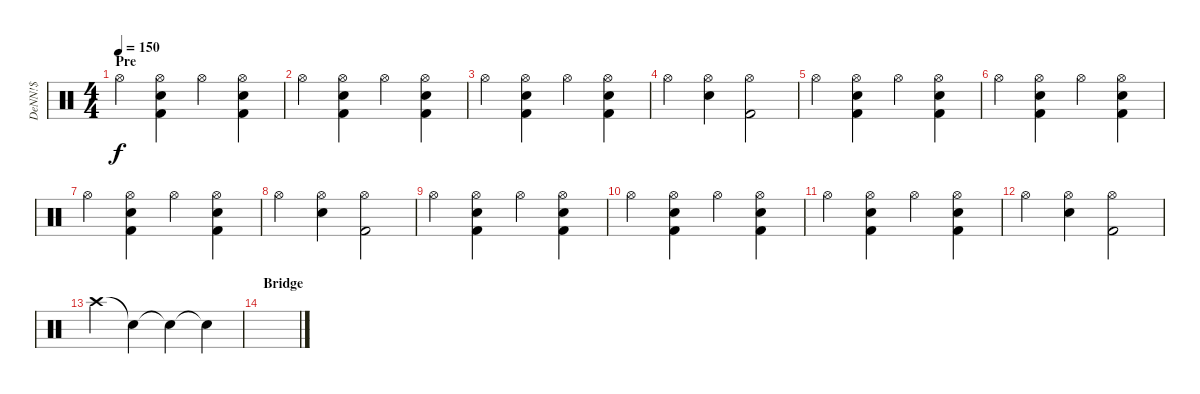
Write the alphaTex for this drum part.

\track ("DeNN!$" "DeNN!$") {instrument percussion}
\staff {score}
\articulation defaults
\ts (4 4)
\section ("" "Pre")
\tempo 150
\clef neutral
\ks c "Hi-Hat (open)".4{dy f}
("Hi-Hat (open)" "Snare (hit) 2" "Kick (hit) 2").4 "Hi-Hat (open)".4 ("Hi-Hat (open)" "Snare (hit) 2" "Kick (hit) 2").4 |
"Hi-Hat (open)".4 ("Hi-Hat (open)" "Snare (hit) 2" "Kick (hit) 2").4 "Hi-Hat (open)".4 ("Hi-Hat (open)" "Snare (hit) 2" "Kick (hit) 2").4 |
"Hi-Hat (open)".4 ("Hi-Hat (open)" "Snare (hit) 2" "Kick (hit) 2").4 "Hi-Hat (open)".4 ("Hi-Hat (open)" "Snare (hit) 2" "Kick (hit) 2").4 |
"Hi-Hat (open)".4 ("Hi-Hat (open)" "Snare (hit) 2").4 ("Hi-Hat (open)" "Kick (hit) 2").2 |
"Hi-Hat (open)".4 ("Hi-Hat (open)" "Snare (hit) 2" "Kick (hit) 2").4 "Hi-Hat (open)".4 ("Hi-Hat (open)" "Snare (hit) 2" "Kick (hit) 2").4 |
"Hi-Hat (open)".4 ("Hi-Hat (open)" "Snare (hit) 2" "Kick (hit) 2").4 "Hi-Hat (open)".4 ("Hi-Hat (open)" "Snare (hit) 2" "Kick (hit) 2").4 |
"Hi-Hat (open)".4 ("Hi-Hat (open)" "Snare (hit) 2" "Kick (hit) 2").4 "Hi-Hat (open)".4 ("Hi-Hat (open)" "Snare (hit) 2" "Kick (hit) 2").4 |
"Hi-Hat (open)".4 ("Hi-Hat (open)" "Snare (hit) 2").4 ("Hi-Hat (open)" "Kick (hit) 2").2 |
"Hi-Hat (open)".4 ("Hi-Hat (open)" "Snare (hit) 2" "Kick (hit) 2").4 "Hi-Hat (open)".4 ("Hi-Hat (open)" "Snare (hit) 2" "Kick (hit) 2").4 |
"Hi-Hat (open)".4 ("Hi-Hat (open)" "Snare (hit) 2" "Kick (hit) 2").4 "Hi-Hat (open)".4 ("Hi-Hat (open)" "Snare (hit) 2" "Kick (hit) 2").4 |
"Hi-Hat (open)".4 ("Hi-Hat (open)" "Snare (hit) 2" "Kick (hit) 2").4 "Hi-Hat (open)".4 ("Hi-Hat (open)" "Snare (hit) 2" "Kick (hit) 2").4 |
"Hi-Hat (open)".4 ("Hi-Hat (open)" "Snare (hit) 2").4 ("Hi-Hat (open)" "Kick (hit) 2").2 |
"Crash high (hit)".4 "Snare (hit)"{t}.4 "Snare (hit)"{t}.4 "Snare (hit)"{t}.4 |
\section ("" "Bridge")
